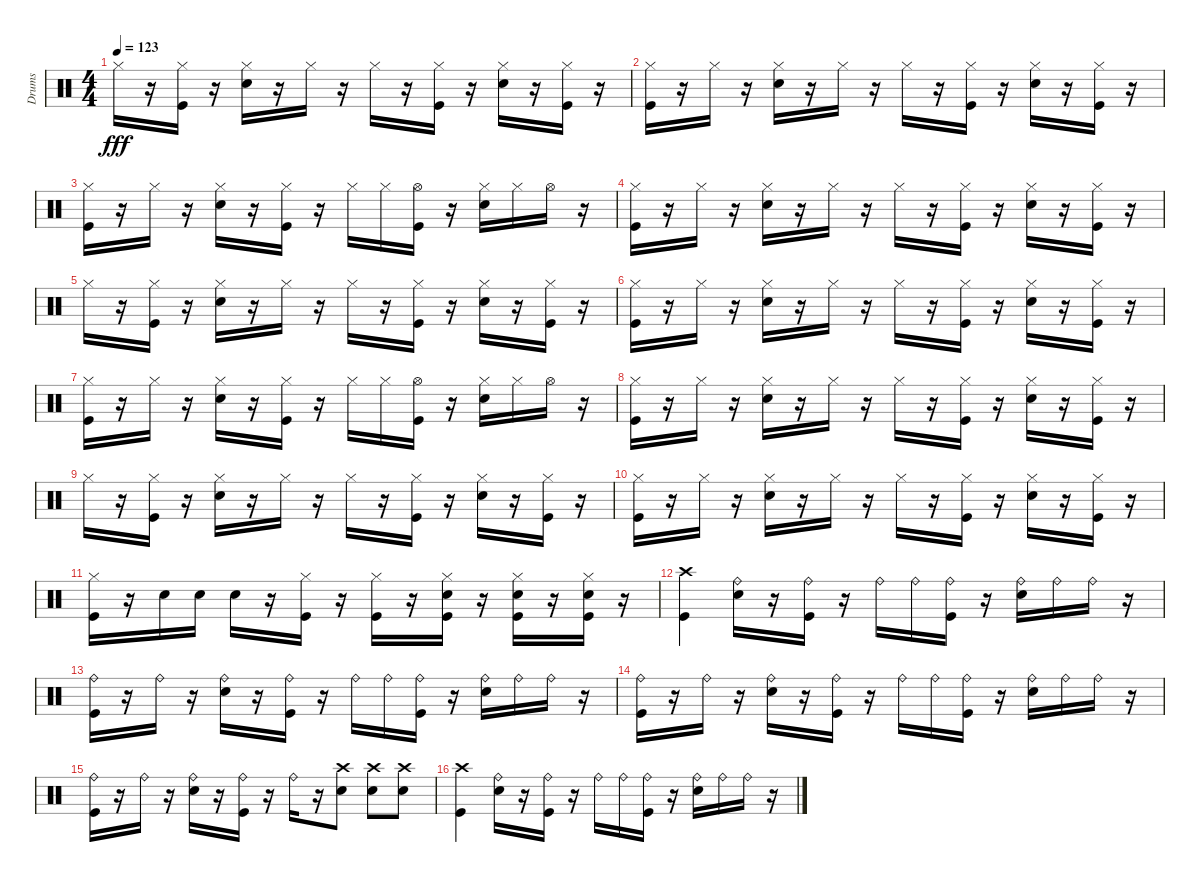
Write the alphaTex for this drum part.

\track ("Drums" "Drums") {instrument percussion}
\staff {score}
\articulation defaults
\ts (4 4)
\tempo 123
\clef neutral
\ks c "Hi-Hat (closed)".16{dy fff}
r.16 ("Kick (hit)" "Hi-Hat (closed)").16 r.16 ("Snare (hit) 2" "Hi-Hat (closed)").16 r.16 "Hi-Hat (closed)".16 r.16 "Hi-Hat (closed)".16 r.16 ("Kick (hit)" "Hi-Hat (closed)").16 r.16 ("Snare (hit) 2" "Hi-Hat (closed)").16 r.16 ("Kick (hit)" "Hi-Hat (closed)").16 r.16 |
("Kick (hit)" "Hi-Hat (closed)").16 r.16 "Hi-Hat (closed)".16 r.16 ("Snare (hit) 2" "Hi-Hat (closed)").16 r.16 "Hi-Hat (closed)".16 r.16 "Hi-Hat (closed)".16 r.16 ("Kick (hit)" "Hi-Hat (closed)").16 r.16 ("Snare (hit) 2" "Hi-Hat (closed)").16 r.16 ("Kick (hit)" "Hi-Hat (closed)").16 r.16 |
("Kick (hit)" "Hi-Hat (closed)").16 r.16 "Hi-Hat (closed)".16 r.16 ("Snare (hit) 2" "Hi-Hat (closed)").16 r.16 ("Kick (hit)" "Hi-Hat (closed)").16 r.16 "Hi-Hat (closed)".16 "Hi-Hat (closed)".16 ("Kick (hit)" "Hi-Hat (open)").16 r.16 ("Snare (hit) 2" "Hi-Hat (closed)").16 "Hi-Hat (closed)".16 "Hi-Hat (open)".16 r.16 |
("Kick (hit)" "Hi-Hat (closed)").16 r.16 "Hi-Hat (closed)".16 r.16 ("Snare (hit) 2" "Hi-Hat (closed)").16 r.16 "Hi-Hat (closed)".16 r.16 "Hi-Hat (closed)".16 r.16 ("Kick (hit)" "Hi-Hat (closed)").16 r.16 ("Snare (hit) 2" "Hi-Hat (closed)").16 r.16 ("Kick (hit)" "Hi-Hat (closed)").16 r.16 |
"Hi-Hat (closed)".16 r.16 ("Kick (hit)" "Hi-Hat (closed)").16 r.16 ("Snare (hit) 2" "Hi-Hat (closed)").16 r.16 "Hi-Hat (closed)".16 r.16 "Hi-Hat (closed)".16 r.16 ("Kick (hit)" "Hi-Hat (closed)").16 r.16 ("Snare (hit) 2" "Hi-Hat (closed)").16 r.16 ("Kick (hit)" "Hi-Hat (closed)").16 r.16 |
("Kick (hit)" "Hi-Hat (closed)").16 r.16 "Hi-Hat (closed)".16 r.16 ("Snare (hit) 2" "Hi-Hat (closed)").16 r.16 "Hi-Hat (closed)".16 r.16 "Hi-Hat (closed)".16 r.16 ("Kick (hit)" "Hi-Hat (closed)").16 r.16 ("Snare (hit) 2" "Hi-Hat (closed)").16 r.16 ("Kick (hit)" "Hi-Hat (closed)").16 r.16 |
("Kick (hit)" "Hi-Hat (closed)").16 r.16 "Hi-Hat (closed)".16 r.16 ("Snare (hit) 2" "Hi-Hat (closed)").16 r.16 ("Kick (hit)" "Hi-Hat (closed)").16 r.16 "Hi-Hat (closed)".16 "Hi-Hat (closed)".16 ("Kick (hit)" "Hi-Hat (open)").16 r.16 ("Snare (hit) 2" "Hi-Hat (closed)").16 "Hi-Hat (closed)".16 "Hi-Hat (open)".16 r.16 |
("Kick (hit)" "Hi-Hat (closed)").16 r.16 "Hi-Hat (closed)".16 r.16 ("Snare (hit) 2" "Hi-Hat (closed)").16 r.16 "Hi-Hat (closed)".16 r.16 "Hi-Hat (closed)".16 r.16 ("Kick (hit)" "Hi-Hat (closed)").16 r.16 ("Snare (hit) 2" "Hi-Hat (closed)").16 r.16 ("Kick (hit)" "Hi-Hat (closed)").16 r.16 |
"Hi-Hat (closed)".16 r.16 ("Kick (hit)" "Hi-Hat (closed)").16 r.16 ("Snare (hit) 2" "Hi-Hat (closed)").16 r.16 "Hi-Hat (closed)".16 r.16 "Hi-Hat (closed)".16 r.16 ("Kick (hit)" "Hi-Hat (closed)").16 r.16 ("Snare (hit) 2" "Hi-Hat (closed)").16 r.16 ("Kick (hit)" "Hi-Hat (closed)").16 r.16 |
("Kick (hit)" "Hi-Hat (closed)").16 r.16 "Hi-Hat (closed)".16 r.16 ("Snare (hit) 2" "Hi-Hat (closed)").16 r.16 "Hi-Hat (closed)".16 r.16 "Hi-Hat (closed)".16 r.16 ("Kick (hit)" "Hi-Hat (closed)").16 r.16 ("Snare (hit) 2" "Hi-Hat (closed)").16 r.16 ("Kick (hit)" "Hi-Hat (closed)").16 r.16 |
("Kick (hit)" "Hi-Hat (closed)").16 r.16 "Snare (hit) 2".16 "Snare (hit) 2".16 "Snare (hit) 2".16 r.16 ("Kick (hit)" "Hi-Hat (closed)").16 r.16 ("Kick (hit)" "Hi-Hat (closed)").16 r.16 ("Kick (hit)" "Snare (hit) 2" "Hi-Hat (closed)").16 r.16 ("Kick (hit)" "Snare (hit) 2" "Hi-Hat (closed)").16 r.16 ("Kick (hit)" "Snare (hit) 2" "Hi-Hat (closed)").16 r.16 |
("Kick (hit)" "Crash high (hit)").4 ("Snare (hit) 2" "Ride (bell)").16 r.16 ("Kick (hit)" "Ride (bell)").16 r.16 "Ride (bell)".16 "Ride (bell)".16 ("Kick (hit)" "Ride (bell)").16 r.16 ("Snare (hit) 2" "Ride (bell)").16 "Ride (bell)".16 "Ride (bell)".16 r.16 |
("Ride (bell)" "Kick (hit)").16 r.16 "Ride (bell)".16 r.16 ("Ride (bell)" "Snare (hit) 2").16 r.16 ("Ride (bell)" "Kick (hit)").16 r.16 "Ride (bell)".16 "Ride (bell)".16 ("Ride (bell)" "Kick (hit)").16 r.16 ("Ride (bell)" "Snare (hit) 2").16 "Ride (bell)".16 "Ride (bell)".16 r.16 |
("Ride (bell)" "Kick (hit)").16 r.16 "Ride (bell)".16 r.16 ("Ride (bell)" "Snare (hit) 2").16 r.16 ("Ride (bell)" "Kick (hit)").16 r.16 "Ride (bell)".16 "Ride (bell)".16 ("Ride (bell)" "Kick (hit)").16 r.16 ("Ride (bell)" "Snare (hit) 2").16 "Ride (bell)".16 "Ride (bell)".16 r.16 |
("Kick (hit)" "Ride (bell)").16 r.16 "Ride (bell)".16 r.16 ("Snare (hit) 2" "Ride (bell)").16 r.16 ("Kick (hit)" "Ride (bell)").16 r.16 "Ride (bell)".16 r.16 ("Snare (hit) 2" "Crash high (hit)").8 ("Snare (hit) 2" "Crash high (hit)").8 ("Snare (hit) 2" "Crash high (hit)").8 |
("Kick (hit)" "Crash high (hit)").4 ("Snare (hit) 2" "Ride (bell)").16 r.16 ("Kick (hit)" "Ride (bell)").16 r.16 "Ride (bell)".16 "Ride (bell)".16 ("Kick (hit)" "Ride (bell)").16 r.16 ("Snare (hit) 2" "Ride (bell)").16 "Ride (bell)".16 "Ride (bell)".16 r.16
